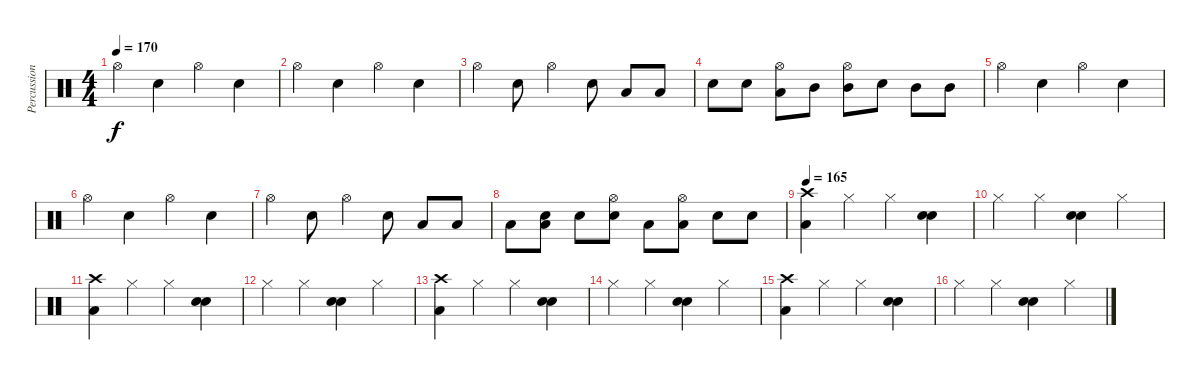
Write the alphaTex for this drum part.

\track ("Percussion" "Percussion") {instrument percussion}
\staff {score}
\articulation defaults
\ts (4 4)
\tempo 170
\clef neutral
\ks c "Hi-Hat (open)".4{dy f} "Electric Snare (hit)".4 "Hi-Hat (open)".4 "Electric Snare (hit)".4
|
"Hi-Hat (open)".4 "Electric Snare (hit)".4 "Hi-Hat (open)".4 "Electric Snare (hit)".4 |
"Hi-Hat (open)".4 "Electric Snare (hit)".8 "Hi-Hat (open)".4 "Electric Snare (hit)".8 "Low Tom (hit)".8 "Low Tom (hit)".8 |
"Electric Snare (hit)".8 "Electric Snare (hit)".8 ("Low Tom (hit)" "Hi-Hat (open)").8 "Mid Tom (hit)".8 ("Mid Tom (hit)" "Hi-Hat (open)").8 "Electric Snare (hit)".8 "Mid Tom (hit)".8 "Mid Tom (hit)".8 |
"Hi-Hat (open)".4 "Electric Snare (hit)".4 "Hi-Hat (open)".4 "Electric Snare (hit)".4 |
"Hi-Hat (open)".4 "Electric Snare (hit)".4 "Hi-Hat (open)".4 "Electric Snare (hit)".4 |
"Hi-Hat (open)".4 "Electric Snare (hit)".8 "Hi-Hat (open)".4 "Electric Snare (hit)".8 "Low Tom (hit)".8 "Low Tom (hit)".8 |
"Low Tom (hit)".8 ("Electric Snare (hit)" "Low Tom (hit)").8 "Electric Snare (hit)".8 ("Electric Snare (hit)" "Hi-Hat (open)").8 "Low Tom (hit)".8 ("Low Tom (hit)" "Hi-Hat (open)").8 "Electric Snare (hit)".8 "Electric Snare (hit)".8 |
\tempo 165
("Crash high (hit)" "Low Tom (hit)").4 "Hi-Hat (closed)".4 "Hi-Hat (closed)".4 ("Electric Snare (hit)" "Electric Snare (hit)").4 |
"Hi-Hat (closed)".4 "Hi-Hat (closed)".4 ("Electric Snare (hit)" "Electric Snare (hit)").4 "Hi-Hat (closed)".4 |
("Crash high (hit)" "Low Tom (hit)").4 "Hi-Hat (closed)".4 "Hi-Hat (closed)".4 ("Electric Snare (hit)" "Electric Snare (hit)").4 |
"Hi-Hat (closed)".4 "Hi-Hat (closed)".4 ("Electric Snare (hit)" "Electric Snare (hit)").4 "Hi-Hat (closed)".4 |
("Crash high (hit)" "Low Tom (hit)").4 "Hi-Hat (closed)".4 "Hi-Hat (closed)".4 ("Electric Snare (hit)" "Electric Snare (hit)").4 |
"Hi-Hat (closed)".4 "Hi-Hat (closed)".4 ("Electric Snare (hit)" "Electric Snare (hit)").4 "Hi-Hat (closed)".4 |
("Crash high (hit)" "Low Tom (hit)").4 "Hi-Hat (closed)".4 "Hi-Hat (closed)".4 ("Electric Snare (hit)" "Electric Snare (hit)").4 |
"Hi-Hat (closed)".4 "Hi-Hat (closed)".4 ("Electric Snare (hit)" "Electric Snare (hit)").4 "Hi-Hat (closed)".4
